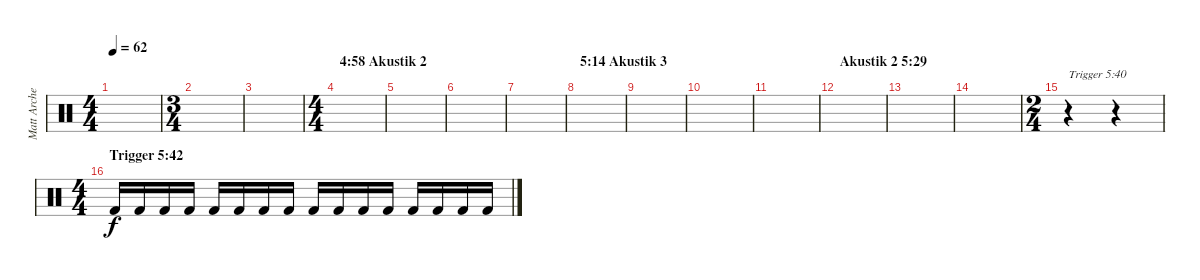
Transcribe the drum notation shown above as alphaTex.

\track ("Matt Archer" "Matt Arche") {instrument percussion}
\staff {score}
\articulation defaults
\ts (4 4)
\tempo 62
\clef neutral
\ks c
|
\ts (3 4)
|
|
\ts (4 4)
\section ("" "4:58 Akustik 2")
|
|
|
|
\section ("" "5:14 Akustik 3")
|
|
|
|
\section ("" "Akustik 2 5:29")
|
|
|
\ts (2 4)
r.4{txt "Trigger 5:40"} r.4 |
\ts (4 4)
\section ("" "Trigger 5:42")
"Kick (hit) 2".16 "Kick (hit) 2".16 "Kick (hit) 2".16 "Kick (hit) 2".16 "Kick (hit) 2".16 "Kick (hit) 2".16 "Kick (hit) 2".16 "Kick (hit) 2".16 "Kick (hit) 2".16 "Kick (hit) 2".16 "Kick (hit) 2".16 "Kick (hit) 2".16 "Kick (hit) 2".16 "Kick (hit) 2".16 "Kick (hit) 2".16 "Kick (hit) 2".16
